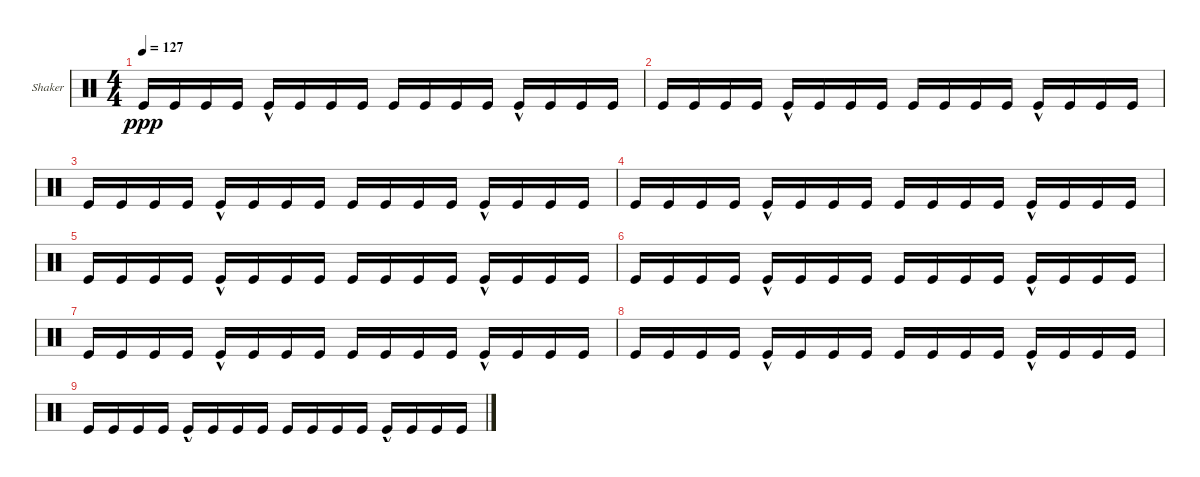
\defaultSystemsLayout 4
\bracketExtendMode groupsimilarinstruments
\firstSystemTrackNameOrientation horizontal
\otherSystemsTrackNameOrientation horizontal
\track ("Shaker" "Shaker") {instrument percussion}
\staff {score}
\articulation defaults
\ts (4 4)
\tempo 127
\clef neutral
\scale
0.333333
\ks c "Kick (hit)".16{dy ppp} "Kick (hit)".16 "Kick (hit)".16 "Kick (hit)".16 "Kick (hit)"{hac}.16 "Kick (hit)".16 "Kick (hit)".16 "Kick (hit)".16 "Kick (hit)".16 "Kick (hit)".16 "Kick (hit)".16 "Kick (hit)".16 "Kick (hit)"{hac}.16 "Kick (hit)".16 "Kick (hit)".16 "Kick (hit)".16
|
\scale
0.333333 "Kick (hit)".16 "Kick (hit)".16 "Kick (hit)".16 "Kick (hit)".16 "Kick (hit)"{hac}.16 "Kick (hit)".16 "Kick (hit)".16 "Kick (hit)".16 "Kick (hit)".16 "Kick (hit)".16 "Kick (hit)".16 "Kick (hit)".16 "Kick (hit)"{hac}.16 "Kick (hit)".16 "Kick (hit)".16 "Kick (hit)".16 |
\scale
0.333333 "Kick (hit)".16 "Kick (hit)".16 "Kick (hit)".16 "Kick (hit)".16 "Kick (hit)"{hac}.16 "Kick (hit)".16 "Kick (hit)".16 "Kick (hit)".16 "Kick (hit)".16 "Kick (hit)".16 "Kick (hit)".16 "Kick (hit)".16 "Kick (hit)"{hac}.16 "Kick (hit)".16 "Kick (hit)".16 "Kick (hit)".16 |
\scale
0.333333 "Kick (hit)".16 "Kick (hit)".16 "Kick (hit)".16 "Kick (hit)".16 "Kick (hit)"{hac}.16 "Kick (hit)".16 "Kick (hit)".16 "Kick (hit)".16 "Kick (hit)".16 "Kick (hit)".16 "Kick (hit)".16 "Kick (hit)".16 "Kick (hit)"{hac}.16 "Kick (hit)".16 "Kick (hit)".16 "Kick (hit)".16 |
\scale
0.333333 "Kick (hit)".16 "Kick (hit)".16 "Kick (hit)".16 "Kick (hit)".16 "Kick (hit)"{hac}.16 "Kick (hit)".16 "Kick (hit)".16 "Kick (hit)".16 "Kick (hit)".16 "Kick (hit)".16 "Kick (hit)".16 "Kick (hit)".16 "Kick (hit)"{hac}.16 "Kick (hit)".16 "Kick (hit)".16 "Kick (hit)".16 |
\scale
0.333333 "Kick (hit)".16 "Kick (hit)".16 "Kick (hit)".16 "Kick (hit)".16 "Kick (hit)"{hac}.16 "Kick (hit)".16 "Kick (hit)".16 "Kick (hit)".16 "Kick (hit)".16 "Kick (hit)".16 "Kick (hit)".16 "Kick (hit)".16 "Kick (hit)"{hac}.16 "Kick (hit)".16 "Kick (hit)".16 "Kick (hit)".16 |
\scale
0.333333 "Kick (hit)".16 "Kick (hit)".16 "Kick (hit)".16 "Kick (hit)".16 "Kick (hit)"{hac}.16 "Kick (hit)".16 "Kick (hit)".16 "Kick (hit)".16 "Kick (hit)".16 "Kick (hit)".16 "Kick (hit)".16 "Kick (hit)".16 "Kick (hit)"{hac}.16 "Kick (hit)".16 "Kick (hit)".16 "Kick (hit)".16 |
\scale
0.333333 "Kick (hit)".16 "Kick (hit)".16 "Kick (hit)".16 "Kick (hit)".16 "Kick (hit)"{hac}.16 "Kick (hit)".16 "Kick (hit)".16 "Kick (hit)".16 "Kick (hit)".16 "Kick (hit)".16 "Kick (hit)".16 "Kick (hit)".16 "Kick (hit)"{hac}.16 "Kick (hit)".16 "Kick (hit)".16 "Kick (hit)".16 |
\scale
0.333333 "Kick (hit)".16 "Kick (hit)".16 "Kick (hit)".16 "Kick (hit)".16 "Kick (hit)"{hac}.16 "Kick (hit)".16 "Kick (hit)".16 "Kick (hit)".16 "Kick (hit)".16 "Kick (hit)".16 "Kick (hit)".16 "Kick (hit)".16 "Kick (hit)"{hac}.16 "Kick (hit)".16 "Kick (hit)".16 "Kick (hit)".16 |
\scale
0.333333 |
\scale
0.333333 |
\scale
0.333333 |
\scale
0.333333 |
\scale
0.333333 |
\scale
0.333333 |
\scale
0.333333
